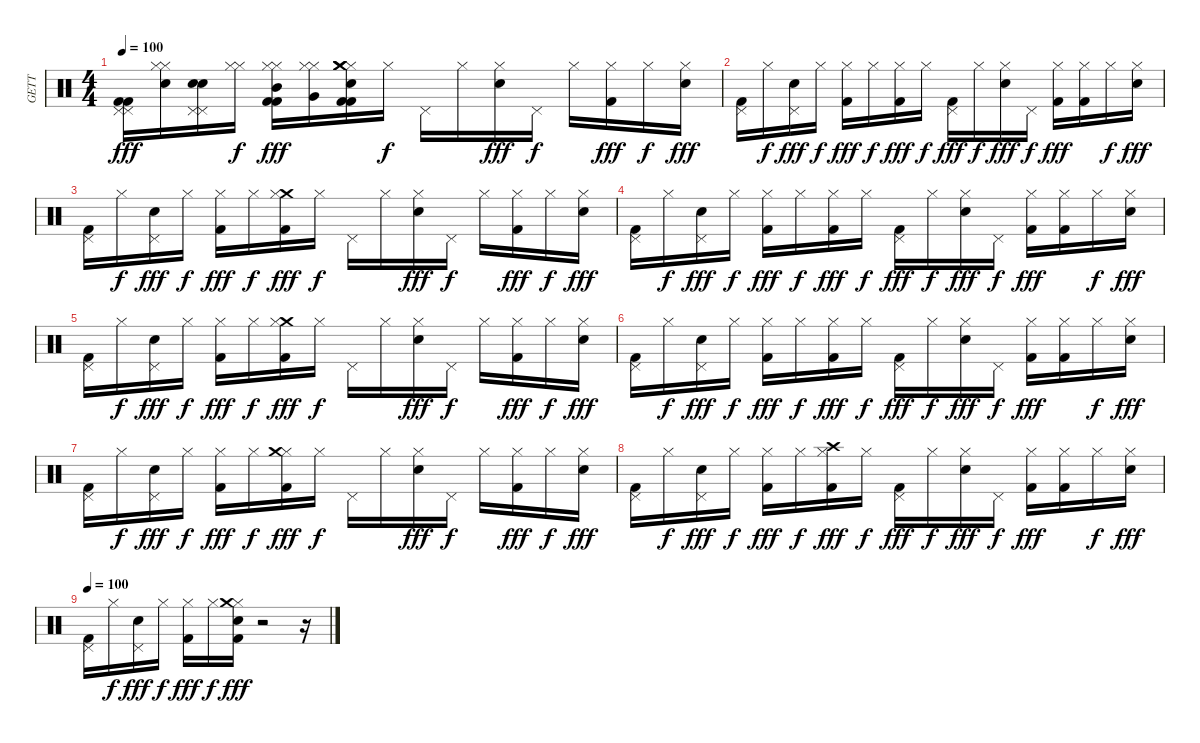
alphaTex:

\track ("GETT" "GETT") {instrument percussion}
\staff {score}
\articulation defaults
\ts (4 4)
\tempo 100
\clef neutral
\ks c
("Pedal Hi-Hat (hit)" "Kick (hit) 2" "Pedal Hi-Hat (hit)" "Kick (hit) 2").16{dy fff} ("Hi-Hat (closed)" "Hi-Hat (closed)" "Snare (hit) 2").16 ("Snare (hit) 2" "Pedal Hi-Hat (hit)" "Pedal Hi-Hat (hit)" "Snare (hit) 2").16 ("Hi-Hat (closed)" "Hi-Hat (closed)").16{dy f} ("Kick (hit) 2" "Hi-Hat (closed)" "Mid Tom (hit)" "Hi-Hat (closed)" "Kick (hit) 2").16{dy fff} ("Hi-Hat (closed)" "Very Low Tom (hit)" "Hi-Hat (closed)").16 ("Hi-Hat (closed)" "Kick (hit) 2" "Crash medium (hit)" "Snare (hit) 2" "Kick (hit) 2" "Crash medium (hit)").16 "Hi-Hat (closed)".16{dy f} "Pedal Hi-Hat (hit)".16 "Hi-Hat (closed)".16 ("Hi-Hat (closed)" "Snare (hit) 2").16{dy fff} "Pedal Hi-Hat (hit)".16{dy f} "Hi-Hat (closed)".16 ("Kick (hit) 2" "Hi-Hat (closed)").16{dy fff} "Hi-Hat (closed)".16{dy f} ("Snare (hit) 2" "Hi-Hat (closed)").16{dy fff} |
("Pedal Hi-Hat (hit)" "Kick (hit) 2").16 "Hi-Hat (closed)".16{dy f} ("Pedal Hi-Hat (hit)" "Snare (hit) 2").16{dy fff} "Hi-Hat (closed)".16{dy f} ("Hi-Hat (closed)" "Kick (hit) 2").16{dy fff} "Hi-Hat (closed)".16{dy f} ("Kick (hit) 2" "Hi-Hat (closed)").16{dy fff} "Hi-Hat (closed)".16{dy f} ("Pedal Hi-Hat (hit)" "Kick (hit) 2").16{dy fff} "Hi-Hat (closed)".16{dy f} ("Hi-Hat (closed)" "Snare (hit) 2").16{dy fff} "Pedal Hi-Hat (hit)".16{dy f} ("Kick (hit) 2" "Hi-Hat (closed)").16{dy fff} ("Hi-Hat (closed)" "Kick (hit) 2").16 "Hi-Hat (closed)".16{dy f} ("Snare (hit) 2" "Hi-Hat (closed)").16{dy fff} |
("Kick (hit) 2" "Pedal Hi-Hat (hit)").16 "Hi-Hat (closed)".16{dy f} ("Snare (hit) 2" "Pedal Hi-Hat (hit)").16{dy fff} "Hi-Hat (closed)".16{dy f} ("Hi-Hat (closed)" "Kick (hit) 2").16{dy fff} "Hi-Hat (closed)".16{dy f} ("Kick (hit) 2" "Crash medium (hit)" "Hi-Hat (closed)").16{dy fff} "Hi-Hat (closed)".16{dy f} "Pedal Hi-Hat (hit)".16 "Hi-Hat (closed)".16 ("Hi-Hat (closed)" "Snare (hit) 2").16{dy fff} "Pedal Hi-Hat (hit)".16{dy f} "Hi-Hat (closed)".16 ("Kick (hit) 2" "Hi-Hat (closed)").16{dy fff} "Hi-Hat (closed)".16{dy f} ("Snare (hit) 2" "Hi-Hat (closed)").16{dy fff} |
("Pedal Hi-Hat (hit)" "Kick (hit) 2").16 "Hi-Hat (closed)".16{dy f} ("Pedal Hi-Hat (hit)" "Snare (hit) 2").16{dy fff} "Hi-Hat (closed)".16{dy f} ("Hi-Hat (closed)" "Kick (hit) 2").16{dy fff} "Hi-Hat (closed)".16{dy f} ("Kick (hit) 2" "Hi-Hat (closed)").16{dy fff} "Hi-Hat (closed)".16{dy f} ("Kick (hit) 2" "Pedal Hi-Hat (hit)").16{dy fff} "Hi-Hat (closed)".16{dy f} ("Snare (hit) 2" "Hi-Hat (closed)").16{dy fff} "Pedal Hi-Hat (hit)".16{dy f} ("Kick (hit) 2" "Hi-Hat (closed)").16{dy fff} ("Kick (hit) 2" "Hi-Hat (closed)").16 "Hi-Hat (closed)".16{dy f} ("Snare (hit) 2" "Hi-Hat (closed)").16{dy fff} |
("Pedal Hi-Hat (hit)" "Kick (hit) 2").16 "Hi-Hat (closed)".16{dy f} ("Pedal Hi-Hat (hit)" "Snare (hit) 2").16{dy fff} "Hi-Hat (closed)".16{dy f} ("Kick (hit) 2" "Hi-Hat (closed)").16{dy fff} "Hi-Hat (closed)".16{dy f} ("Crash medium (hit)" "Hi-Hat (closed)" "Kick (hit) 2").16{dy fff} "Hi-Hat (closed)".16{dy f} "Pedal Hi-Hat (hit)".16 "Hi-Hat (closed)".16 ("Hi-Hat (closed)" "Snare (hit) 2").16{dy fff} "Pedal Hi-Hat (hit)".16{dy f} "Hi-Hat (closed)".16 ("Hi-Hat (closed)" "Kick (hit) 2").16{dy fff} "Hi-Hat (closed)".16{dy f} ("Hi-Hat (closed)" "Snare (hit) 2").16{dy fff} |
("Pedal Hi-Hat (hit)" "Kick (hit) 2").16 "Hi-Hat (closed)".16{dy f} ("Pedal Hi-Hat (hit)" "Snare (hit) 2").16{dy fff} "Hi-Hat (closed)".16{dy f} ("Hi-Hat (closed)" "Kick (hit) 2").16{dy fff} "Hi-Hat (closed)".16{dy f} ("Kick (hit) 2" "Hi-Hat (closed)").16{dy fff} "Hi-Hat (closed)".16{dy f} ("Pedal Hi-Hat (hit)" "Kick (hit) 2").16{dy fff} "Hi-Hat (closed)".16{dy f} ("Hi-Hat (closed)" "Snare (hit) 2").16{dy fff} "Pedal Hi-Hat (hit)".16{dy f} ("Hi-Hat (closed)" "Kick (hit) 2").16{dy fff} ("Kick (hit) 2" "Hi-Hat (closed)").16 "Hi-Hat (closed)".16{dy f} ("Hi-Hat (closed)" "Snare (hit) 2").16{dy fff} |
("Pedal Hi-Hat (hit)" "Kick (hit) 2").16 "Hi-Hat (closed)".16{dy f} ("Pedal Hi-Hat (hit)" "Snare (hit) 2").16{dy fff} "Hi-Hat (closed)".16{dy f} ("Hi-Hat (closed)" "Kick (hit) 2").16{dy fff} "Hi-Hat (closed)".16{dy f} ("Kick (hit) 2" "Hi-Hat (closed)" "Crash medium (hit)").16{dy fff} "Hi-Hat (closed)".16{dy f} "Pedal Hi-Hat (hit)".16 "Hi-Hat (closed)".16 ("Hi-Hat (closed)" "Snare (hit) 2").16{dy fff} "Pedal Hi-Hat (hit)".16{dy f} "Hi-Hat (closed)".16 ("Hi-Hat (closed)" "Kick (hit) 2").16{dy fff} "Hi-Hat (closed)".16{dy f} ("Hi-Hat (closed)" "Snare (hit) 2").16{dy fff} |
("Pedal Hi-Hat (hit)" "Kick (hit) 2").16 "Hi-Hat (closed)".16{dy f} ("Pedal Hi-Hat (hit)" "Snare (hit) 2").16{dy fff} "Hi-Hat (closed)".16{dy f} ("Hi-Hat (closed)" "Kick (hit) 2").16{dy fff} "Hi-Hat (closed)".16{dy f} ("Crash high (hit)" "Hi-Hat (closed)" "Kick (hit) 2").16{dy fff} "Hi-Hat (closed)".16{dy f} ("Pedal Hi-Hat (hit)" "Kick (hit) 2").16{dy fff} "Hi-Hat (closed)".16{dy f} ("Hi-Hat (closed)" "Snare (hit) 2").16{dy fff} "Pedal Hi-Hat (hit)".16{dy f} ("Kick (hit) 2" "Hi-Hat (closed)").16{dy fff} ("Kick (hit) 2" "Hi-Hat (closed)").16 "Hi-Hat (closed)".16{dy f} ("Hi-Hat (closed)" "Snare (hit) 2").16{dy fff} |
\tempo 100
("Pedal Hi-Hat (hit)" "Kick (hit) 2").16 "Hi-Hat (closed)".16{dy f} ("Snare (hit) 2" "Pedal Hi-Hat (hit)").16{dy fff} "Hi-Hat (closed)".16{dy f} ("Kick (hit) 2" "Hi-Hat (closed)").16{dy fff} "Hi-Hat (closed)".16{dy f} ("Hi-Hat (closed)" "Kick (hit) 2" "Crash medium (hit)" "Snare (hit) 2").16{dy fff} r.2 r.16
